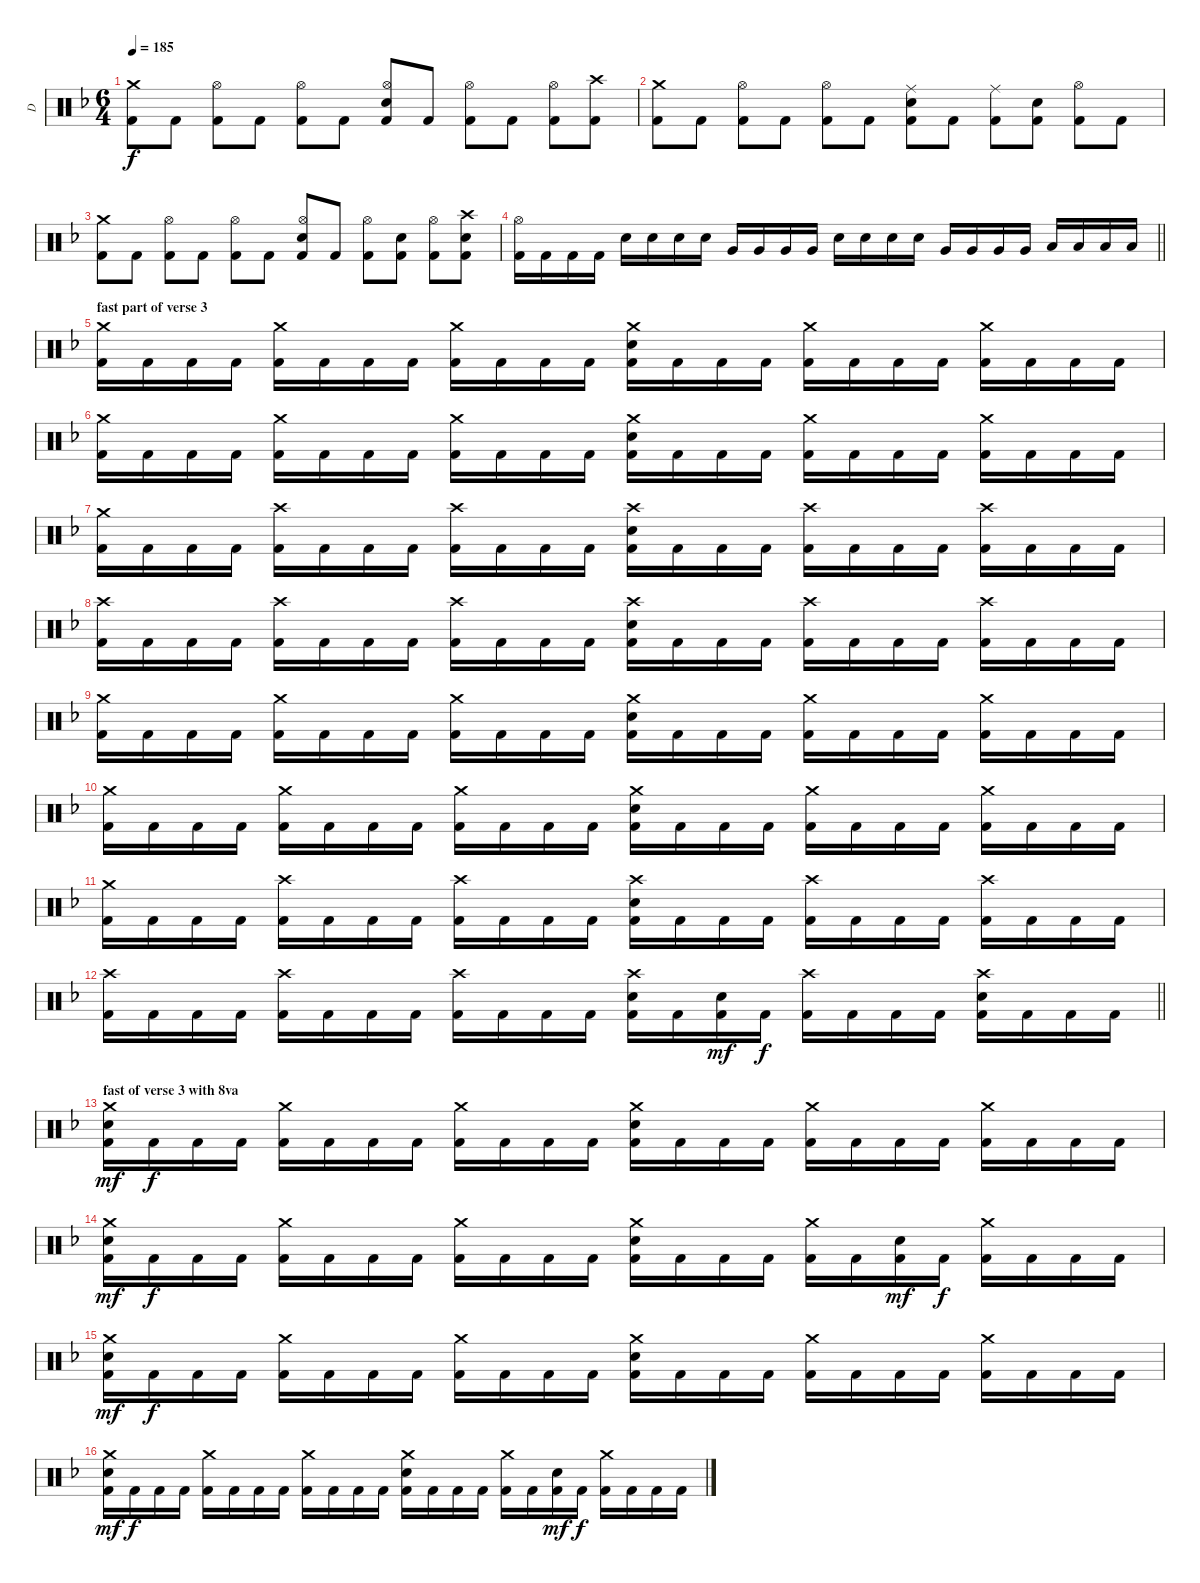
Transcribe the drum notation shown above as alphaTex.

\track ("D" "D") {instrument percussion}
\staff {score}
\articulation defaults
\ts (6 4)
\tempo 185
\clef neutral
\ks dminor
("Crash medium (hit)" "Kick (hit) 2").8{dy f} "Kick (hit) 2".8 ("Hi-Hat (open)" "Kick (hit) 2").8 "Kick (hit) 2".8 ("Hi-Hat (open)" "Kick (hit) 2").8 "Kick (hit) 2".8 ("Hi-Hat (open)" "Snare (hit) 2" "Kick (hit) 2").8 "Kick (hit) 2".8 ("Hi-Hat (open)" "Kick (hit) 2").8 "Kick (hit) 2".8 ("Hi-Hat (open)" "Kick (hit) 2").8 ("Crash high (hit)" "Kick (hit) 2").8 |
("Crash medium (hit)" "Kick (hit) 2").8 "Kick (hit) 2".8 ("Hi-Hat (open)" "Kick (hit) 2").8 "Kick (hit) 2".8 ("Hi-Hat (open)" "Kick (hit) 2").8 "Kick (hit) 2".8 ("Ride (middle)" "Snare (hit) 2" "Kick (hit) 2").8 "Kick (hit) 2".8 ("Ride (middle)" "Kick (hit) 2").8 ("Snare (hit) 2" "Kick (hit) 2").8 ("Hi-Hat (open)" "Kick (hit) 2").8 "Kick (hit) 2".8 |
("Crash medium (hit)" "Kick (hit) 2").8 "Kick (hit) 2".8 ("Hi-Hat (open)" "Kick (hit) 2").8 "Kick (hit) 2".8 ("Hi-Hat (open)" "Kick (hit) 2").8 "Kick (hit) 2".8 ("Hi-Hat (open)" "Snare (hit) 2" "Kick (hit) 2").8 "Kick (hit) 2".8 ("Hi-Hat (open)" "Kick (hit) 2").8 ("Snare (hit) 2" "Kick (hit) 2").8 ("Hi-Hat (open)" "Kick (hit) 2").8 ("Crash high (hit)" "Snare (hit) 2" "Kick (hit) 2").8 |
\barLineRight lightlight
("Hi-Hat (open)" "Kick (hit) 2").16 "Kick (hit) 2".16 "Kick (hit) 2".16 "Kick (hit) 2".16 "Snare (hit) 2".16 "Snare (hit) 2".16 "Snare (hit) 2".16 "Snare (hit) 2".16 "Very Low Tom (hit)".16 "Very Low Tom (hit)".16 "Very Low Tom (hit)".16 "Very Low Tom (hit)".16 "Snare (hit) 2".16 "Snare (hit) 2".16 "Snare (hit) 2".16 "Snare (hit) 2".16 "Very Low Tom (hit)".16 "Very Low Tom (hit)".16 "Very Low Tom (hit)".16 "Very Low Tom (hit)".16 "Low Floor Tom (hit)".16 "Low Floor Tom (hit)".16 "Low Floor Tom (hit)".16 "Low Floor Tom (hit)".16 |
\section ("" "fast part of verse 3")
("Crash medium (hit)" "Kick (hit) 2").16 "Kick (hit) 2".16 "Kick (hit) 2".16 "Kick (hit) 2".16 ("Crash medium (hit)" "Kick (hit) 2").16 "Kick (hit) 2".16 "Kick (hit) 2".16 "Kick (hit) 2".16 ("Crash medium (hit)" "Kick (hit) 2").16 "Kick (hit) 2".16 "Kick (hit) 2".16 "Kick (hit) 2".16 ("Crash medium (hit)" "Snare (hit) 2" "Kick (hit) 2").16 "Kick (hit) 2".16 "Kick (hit) 2".16 "Kick (hit) 2".16 ("Crash medium (hit)" "Kick (hit) 2").16 "Kick (hit) 2".16 "Kick (hit) 2".16 "Kick (hit) 2".16 ("Crash medium (hit)" "Kick (hit) 2").16 "Kick (hit) 2".16 "Kick (hit) 2".16 "Kick (hit) 2".16 |
("Crash medium (hit)" "Kick (hit) 2").16 "Kick (hit) 2".16 "Kick (hit) 2".16 "Kick (hit) 2".16 ("Crash medium (hit)" "Kick (hit) 2").16 "Kick (hit) 2".16 "Kick (hit) 2".16 "Kick (hit) 2".16 ("Crash medium (hit)" "Kick (hit) 2").16 "Kick (hit) 2".16 "Kick (hit) 2".16 "Kick (hit) 2".16 ("Crash medium (hit)" "Snare (hit) 2" "Kick (hit) 2").16 "Kick (hit) 2".16 "Kick (hit) 2".16 "Kick (hit) 2".16 ("Crash medium (hit)" "Kick (hit) 2").16 "Kick (hit) 2".16 "Kick (hit) 2".16 "Kick (hit) 2".16 ("Crash medium (hit)" "Kick (hit) 2").16 "Kick (hit) 2".16 "Kick (hit) 2".16 "Kick (hit) 2".16 |
("Crash medium (hit)" "Kick (hit) 2").16 "Kick (hit) 2".16 "Kick (hit) 2".16 "Kick (hit) 2".16 ("Crash high (hit)" "Kick (hit) 2").16 "Kick (hit) 2".16 "Kick (hit) 2".16 "Kick (hit) 2".16 ("Crash high (hit)" "Kick (hit) 2").16 "Kick (hit) 2".16 "Kick (hit) 2".16 "Kick (hit) 2".16 ("Crash high (hit)" "Snare (hit) 2" "Kick (hit) 2").16 "Kick (hit) 2".16 "Kick (hit) 2".16 "Kick (hit) 2".16 ("Crash high (hit)" "Kick (hit) 2").16 "Kick (hit) 2".16 "Kick (hit) 2".16 "Kick (hit) 2".16 ("Crash high (hit)" "Kick (hit) 2").16 "Kick (hit) 2".16 "Kick (hit) 2".16 "Kick (hit) 2".16 |
("Crash high (hit)" "Kick (hit) 2").16 "Kick (hit) 2".16 "Kick (hit) 2".16 "Kick (hit) 2".16 ("Crash high (hit)" "Kick (hit) 2").16 "Kick (hit) 2".16 "Kick (hit) 2".16 "Kick (hit) 2".16 ("Crash high (hit)" "Kick (hit) 2").16 "Kick (hit) 2".16 "Kick (hit) 2".16 "Kick (hit) 2".16 ("Crash high (hit)" "Snare (hit) 2" "Kick (hit) 2").16 "Kick (hit) 2".16 "Kick (hit) 2".16 "Kick (hit) 2".16 ("Crash high (hit)" "Kick (hit) 2").16 "Kick (hit) 2".16 "Kick (hit) 2".16 "Kick (hit) 2".16 ("Crash high (hit)" "Kick (hit) 2").16 "Kick (hit) 2".16 "Kick (hit) 2".16 "Kick (hit) 2".16 |
("Crash medium (hit)" "Kick (hit) 2").16 "Kick (hit) 2".16 "Kick (hit) 2".16 "Kick (hit) 2".16 ("Crash medium (hit)" "Kick (hit) 2").16 "Kick (hit) 2".16 "Kick (hit) 2".16 "Kick (hit) 2".16 ("Crash medium (hit)" "Kick (hit) 2").16 "Kick (hit) 2".16 "Kick (hit) 2".16 "Kick (hit) 2".16 ("Crash medium (hit)" "Snare (hit) 2" "Kick (hit) 2").16 "Kick (hit) 2".16 "Kick (hit) 2".16 "Kick (hit) 2".16 ("Crash medium (hit)" "Kick (hit) 2").16 "Kick (hit) 2".16 "Kick (hit) 2".16 "Kick (hit) 2".16 ("Crash medium (hit)" "Kick (hit) 2").16 "Kick (hit) 2".16 "Kick (hit) 2".16 "Kick (hit) 2".16 |
("Crash medium (hit)" "Kick (hit) 2").16 "Kick (hit) 2".16 "Kick (hit) 2".16 "Kick (hit) 2".16 ("Crash medium (hit)" "Kick (hit) 2").16 "Kick (hit) 2".16 "Kick (hit) 2".16 "Kick (hit) 2".16 ("Crash medium (hit)" "Kick (hit) 2").16 "Kick (hit) 2".16 "Kick (hit) 2".16 "Kick (hit) 2".16 ("Crash medium (hit)" "Snare (hit) 2" "Kick (hit) 2").16 "Kick (hit) 2".16 "Kick (hit) 2".16 "Kick (hit) 2".16 ("Crash medium (hit)" "Kick (hit) 2").16 "Kick (hit) 2".16 "Kick (hit) 2".16 "Kick (hit) 2".16 ("Crash medium (hit)" "Kick (hit) 2").16 "Kick (hit) 2".16 "Kick (hit) 2".16 "Kick (hit) 2".16 |
("Crash medium (hit)" "Kick (hit) 2").16 "Kick (hit) 2".16 "Kick (hit) 2".16 "Kick (hit) 2".16 ("Crash high (hit)" "Kick (hit) 2").16 "Kick (hit) 2".16 "Kick (hit) 2".16 "Kick (hit) 2".16 ("Crash high (hit)" "Kick (hit) 2").16 "Kick (hit) 2".16 "Kick (hit) 2".16 "Kick (hit) 2".16 ("Crash high (hit)" "Snare (hit) 2" "Kick (hit) 2").16 "Kick (hit) 2".16 "Kick (hit) 2".16 "Kick (hit) 2".16 ("Crash high (hit)" "Kick (hit) 2").16 "Kick (hit) 2".16 "Kick (hit) 2".16 "Kick (hit) 2".16 ("Crash high (hit)" "Kick (hit) 2").16 "Kick (hit) 2".16 "Kick (hit) 2".16 "Kick (hit) 2".16 |
\barLineRight lightlight
("Crash high (hit)" "Kick (hit) 2").16 "Kick (hit) 2".16 "Kick (hit) 2".16 "Kick (hit) 2".16 ("Crash high (hit)" "Kick (hit) 2").16 "Kick (hit) 2".16 "Kick (hit) 2".16 "Kick (hit) 2".16 ("Crash high (hit)" "Kick (hit) 2").16 "Kick (hit) 2".16 "Kick (hit) 2".16 "Kick (hit) 2".16 ("Crash high (hit)" "Snare (hit) 2" "Kick (hit) 2").16 "Kick (hit) 2".16 ("Snare (hit) 2" "Kick (hit) 2").16{dy mf} "Kick (hit) 2".16{dy f} ("Crash high (hit)" "Kick (hit) 2").16 "Kick (hit) 2".16 "Kick (hit) 2".16 "Kick (hit) 2".16 ("Crash high (hit)" "Snare (hit) 2" "Kick (hit) 2").16 "Kick (hit) 2".16 "Kick (hit) 2".16 "Kick (hit) 2".16 |
\section ("" "fast of verse 3 with 8va")
("Crash medium (hit)" "Snare (hit) 2" "Kick (hit) 2").16{dy mf} "Kick (hit) 2".16{dy f} "Kick (hit) 2".16 "Kick (hit) 2".16 ("Crash medium (hit)" "Kick (hit) 2").16 "Kick (hit) 2".16 "Kick (hit) 2".16 "Kick (hit) 2".16 ("Crash medium (hit)" "Kick (hit) 2").16 "Kick (hit) 2".16 "Kick (hit) 2".16 "Kick (hit) 2".16 ("Crash medium (hit)" "Snare (hit) 2" "Kick (hit) 2").16 "Kick (hit) 2".16 "Kick (hit) 2".16 "Kick (hit) 2".16 ("Crash medium (hit)" "Kick (hit) 2").16 "Kick (hit) 2".16 "Kick (hit) 2".16 "Kick (hit) 2".16 ("Crash medium (hit)" "Kick (hit) 2").16 "Kick (hit) 2".16 "Kick (hit) 2".16 "Kick (hit) 2".16 |
("Crash medium (hit)" "Snare (hit) 2" "Kick (hit) 2").16{dy mf} "Kick (hit) 2".16{dy f} "Kick (hit) 2".16 "Kick (hit) 2".16 ("Crash medium (hit)" "Kick (hit) 2").16 "Kick (hit) 2".16 "Kick (hit) 2".16 "Kick (hit) 2".16 ("Crash medium (hit)" "Kick (hit) 2").16 "Kick (hit) 2".16 "Kick (hit) 2".16 "Kick (hit) 2".16 ("Crash medium (hit)" "Snare (hit) 2" "Kick (hit) 2").16 "Kick (hit) 2".16 "Kick (hit) 2".16 "Kick (hit) 2".16 ("Crash medium (hit)" "Kick (hit) 2").16 "Kick (hit) 2".16 ("Snare (hit) 2" "Kick (hit) 2").16{dy mf} "Kick (hit) 2".16{dy f} ("Crash medium (hit)" "Kick (hit) 2").16 "Kick (hit) 2".16 "Kick (hit) 2".16 "Kick (hit) 2".16 |
("Crash medium (hit)" "Snare (hit) 2" "Kick (hit) 2").16{dy mf} "Kick (hit) 2".16{dy f} "Kick (hit) 2".16 "Kick (hit) 2".16 ("Crash medium (hit)" "Kick (hit) 2").16 "Kick (hit) 2".16 "Kick (hit) 2".16 "Kick (hit) 2".16 ("Crash medium (hit)" "Kick (hit) 2").16 "Kick (hit) 2".16 "Kick (hit) 2".16 "Kick (hit) 2".16 ("Crash medium (hit)" "Snare (hit) 2" "Kick (hit) 2").16 "Kick (hit) 2".16 "Kick (hit) 2".16 "Kick (hit) 2".16 ("Crash medium (hit)" "Kick (hit) 2").16 "Kick (hit) 2".16 "Kick (hit) 2".16 "Kick (hit) 2".16 ("Crash medium (hit)" "Kick (hit) 2").16 "Kick (hit) 2".16 "Kick (hit) 2".16 "Kick (hit) 2".16 |
("Crash medium (hit)" "Snare (hit) 2" "Kick (hit) 2").16{dy mf} "Kick (hit) 2".16{dy f} "Kick (hit) 2".16 "Kick (hit) 2".16 ("Crash medium (hit)" "Kick (hit) 2").16 "Kick (hit) 2".16 "Kick (hit) 2".16 "Kick (hit) 2".16 ("Crash medium (hit)" "Kick (hit) 2").16 "Kick (hit) 2".16 "Kick (hit) 2".16 "Kick (hit) 2".16 ("Crash medium (hit)" "Snare (hit) 2" "Kick (hit) 2").16 "Kick (hit) 2".16 "Kick (hit) 2".16 "Kick (hit) 2".16 ("Crash medium (hit)" "Kick (hit) 2").16 "Kick (hit) 2".16 ("Snare (hit) 2" "Kick (hit) 2").16{dy mf} "Kick (hit) 2".16{dy f} ("Crash medium (hit)" "Kick (hit) 2").16 "Kick (hit) 2".16 "Kick (hit) 2".16 "Kick (hit) 2".16
